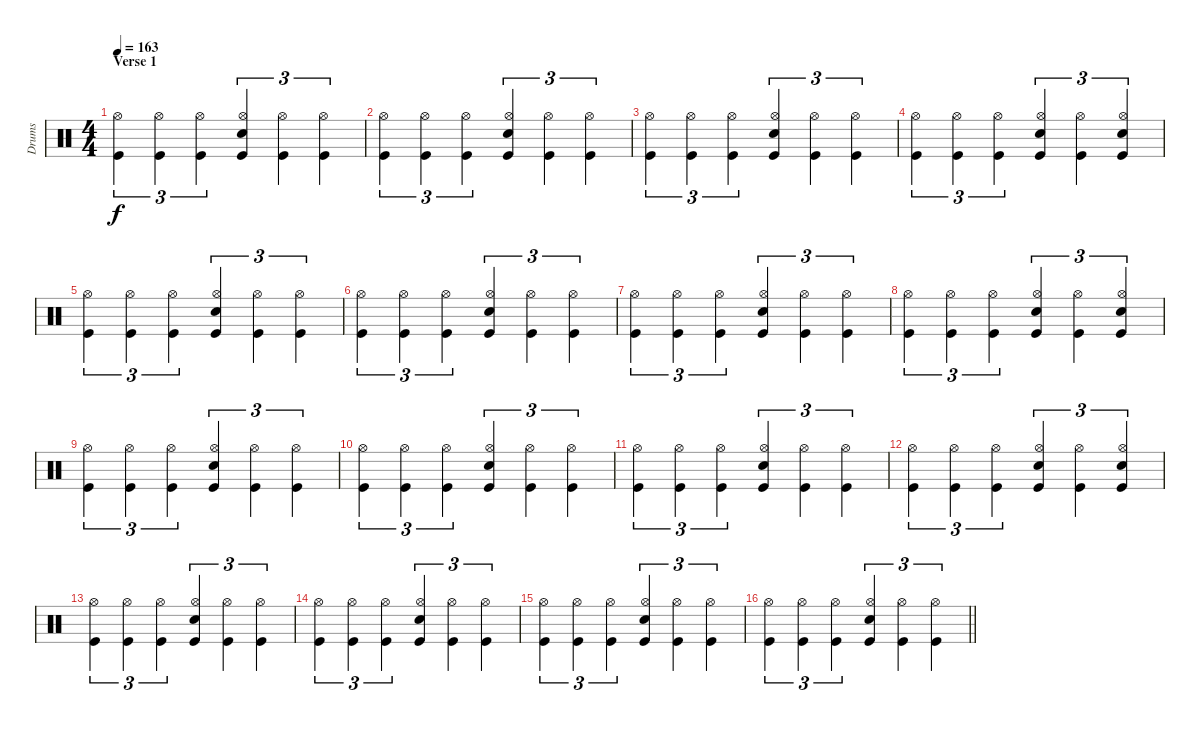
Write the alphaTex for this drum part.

\track ("Drums" "Drums") {instrument percussion}
\staff {score}
\articulation defaults
\ts (4 4)
\section ("" "Verse 1")
\tempo 163
\clef neutral
\ks c
("Kick (hit)" "Hi-Hat (open)").4{tu (3 2) dy f} ("Kick (hit)" "Hi-Hat (open)").4{tu (3 2)} ("Kick (hit)" "Hi-Hat (open)").4{tu (3 2)} ("Snare (hit) 2" "Hi-Hat (open)" "Kick (hit)").4{tu (3 2)} ("Kick (hit)" "Hi-Hat (open)").4{tu (3 2)} ("Kick (hit)" "Hi-Hat (open)").4{tu (3 2)} |
("Kick (hit)" "Hi-Hat (open)").4{tu (3 2)} ("Kick (hit)" "Hi-Hat (open)").4{tu (3 2)} ("Kick (hit)" "Hi-Hat (open)").4{tu (3 2)} ("Snare (hit) 2" "Hi-Hat (open)" "Kick (hit)").4{tu (3 2)} ("Kick (hit)" "Hi-Hat (open)").4{tu (3 2)} ("Kick (hit)" "Hi-Hat (open)").4{tu (3 2)} |
("Kick (hit)" "Hi-Hat (open)").4{tu (3 2)} ("Kick (hit)" "Hi-Hat (open)").4{tu (3 2)} ("Kick (hit)" "Hi-Hat (open)").4{tu (3 2)} ("Snare (hit) 2" "Hi-Hat (open)" "Kick (hit)").4{tu (3 2)} ("Kick (hit)" "Hi-Hat (open)").4{tu (3 2)} ("Kick (hit)" "Hi-Hat (open)").4{tu (3 2)} |
("Kick (hit)" "Hi-Hat (open)").4{tu (3 2)} ("Kick (hit)" "Hi-Hat (open)").4{tu (3 2)} ("Kick (hit)" "Hi-Hat (open)").4{tu (3 2)} ("Snare (hit) 2" "Hi-Hat (open)" "Kick (hit)").4{tu (3 2)} ("Kick (hit)" "Hi-Hat (open)").4{tu (3 2)} ("Kick (hit)" "Hi-Hat (open)" "Snare (hit) 2").4{tu (3 2)} |
("Kick (hit)" "Hi-Hat (open)").4{tu (3 2)} ("Kick (hit)" "Hi-Hat (open)").4{tu (3 2)} ("Kick (hit)" "Hi-Hat (open)").4{tu (3 2)} ("Snare (hit) 2" "Hi-Hat (open)" "Kick (hit)").4{tu (3 2)} ("Kick (hit)" "Hi-Hat (open)").4{tu (3 2)} ("Kick (hit)" "Hi-Hat (open)").4{tu (3 2)} |
("Kick (hit)" "Hi-Hat (open)").4{tu (3 2)} ("Kick (hit)" "Hi-Hat (open)").4{tu (3 2)} ("Kick (hit)" "Hi-Hat (open)").4{tu (3 2)} ("Snare (hit) 2" "Hi-Hat (open)" "Kick (hit)").4{tu (3 2)} ("Kick (hit)" "Hi-Hat (open)").4{tu (3 2)} ("Kick (hit)" "Hi-Hat (open)").4{tu (3 2)} |
("Kick (hit)" "Hi-Hat (open)").4{tu (3 2)} ("Kick (hit)" "Hi-Hat (open)").4{tu (3 2)} ("Kick (hit)" "Hi-Hat (open)").4{tu (3 2)} ("Snare (hit) 2" "Hi-Hat (open)" "Kick (hit)").4{tu (3 2)} ("Kick (hit)" "Hi-Hat (open)").4{tu (3 2)} ("Kick (hit)" "Hi-Hat (open)").4{tu (3 2)} |
("Kick (hit)" "Hi-Hat (open)").4{tu (3 2)} ("Kick (hit)" "Hi-Hat (open)").4{tu (3 2)} ("Kick (hit)" "Hi-Hat (open)").4{tu (3 2)} ("Snare (hit) 2" "Hi-Hat (open)" "Kick (hit)").4{tu (3 2)} ("Kick (hit)" "Hi-Hat (open)").4{tu (3 2)} ("Kick (hit)" "Hi-Hat (open)" "Snare (hit) 2").4{tu (3 2)} |
("Kick (hit)" "Hi-Hat (open)").4{tu (3 2)} ("Kick (hit)" "Hi-Hat (open)").4{tu (3 2)} ("Kick (hit)" "Hi-Hat (open)").4{tu (3 2)} ("Snare (hit) 2" "Hi-Hat (open)" "Kick (hit)").4{tu (3 2)} ("Kick (hit)" "Hi-Hat (open)").4{tu (3 2)} ("Kick (hit)" "Hi-Hat (open)").4{tu (3 2)} |
("Kick (hit)" "Hi-Hat (open)").4{tu (3 2)} ("Kick (hit)" "Hi-Hat (open)").4{tu (3 2)} ("Kick (hit)" "Hi-Hat (open)").4{tu (3 2)} ("Snare (hit) 2" "Hi-Hat (open)" "Kick (hit)").4{tu (3 2)} ("Kick (hit)" "Hi-Hat (open)").4{tu (3 2)} ("Kick (hit)" "Hi-Hat (open)").4{tu (3 2)} |
("Kick (hit)" "Hi-Hat (open)").4{tu (3 2)} ("Kick (hit)" "Hi-Hat (open)").4{tu (3 2)} ("Kick (hit)" "Hi-Hat (open)").4{tu (3 2)} ("Snare (hit) 2" "Hi-Hat (open)" "Kick (hit)").4{tu (3 2)} ("Kick (hit)" "Hi-Hat (open)").4{tu (3 2)} ("Kick (hit)" "Hi-Hat (open)").4{tu (3 2)} |
("Kick (hit)" "Hi-Hat (open)").4{tu (3 2)} ("Kick (hit)" "Hi-Hat (open)").4{tu (3 2)} ("Kick (hit)" "Hi-Hat (open)").4{tu (3 2)} ("Snare (hit) 2" "Hi-Hat (open)" "Kick (hit)").4{tu (3 2)} ("Kick (hit)" "Hi-Hat (open)").4{tu (3 2)} ("Kick (hit)" "Hi-Hat (open)" "Snare (hit) 2").4{tu (3 2)} |
("Kick (hit)" "Hi-Hat (open)").4{tu (3 2)} ("Kick (hit)" "Hi-Hat (open)").4{tu (3 2)} ("Kick (hit)" "Hi-Hat (open)").4{tu (3 2)} ("Snare (hit) 2" "Hi-Hat (open)" "Kick (hit)").4{tu (3 2)} ("Kick (hit)" "Hi-Hat (open)").4{tu (3 2)} ("Kick (hit)" "Hi-Hat (open)").4{tu (3 2)} |
("Kick (hit)" "Hi-Hat (open)").4{tu (3 2)} ("Kick (hit)" "Hi-Hat (open)").4{tu (3 2)} ("Kick (hit)" "Hi-Hat (open)").4{tu (3 2)} ("Snare (hit) 2" "Hi-Hat (open)" "Kick (hit)").4{tu (3 2)} ("Kick (hit)" "Hi-Hat (open)").4{tu (3 2)} ("Kick (hit)" "Hi-Hat (open)").4{tu (3 2)} |
("Kick (hit)" "Hi-Hat (open)").4{tu (3 2)} ("Kick (hit)" "Hi-Hat (open)").4{tu (3 2)} ("Kick (hit)" "Hi-Hat (open)").4{tu (3 2)} ("Snare (hit) 2" "Hi-Hat (open)" "Kick (hit)").4{tu (3 2)} ("Kick (hit)" "Hi-Hat (open)").4{tu (3 2)} ("Kick (hit)" "Hi-Hat (open)").4{tu (3 2)} |
\barLineRight lightlight
("Kick (hit)" "Hi-Hat (open)").4{tu (3 2)} ("Kick (hit)" "Hi-Hat (open)").4{tu (3 2)} ("Kick (hit)" "Hi-Hat (open)").4{tu (3 2)} ("Snare (hit) 2" "Hi-Hat (open)" "Kick (hit)").4{tu (3 2)} ("Kick (hit)" "Hi-Hat (open)").4{tu (3 2)} ("Kick (hit)" "Hi-Hat (open)").4{tu (3 2)}
